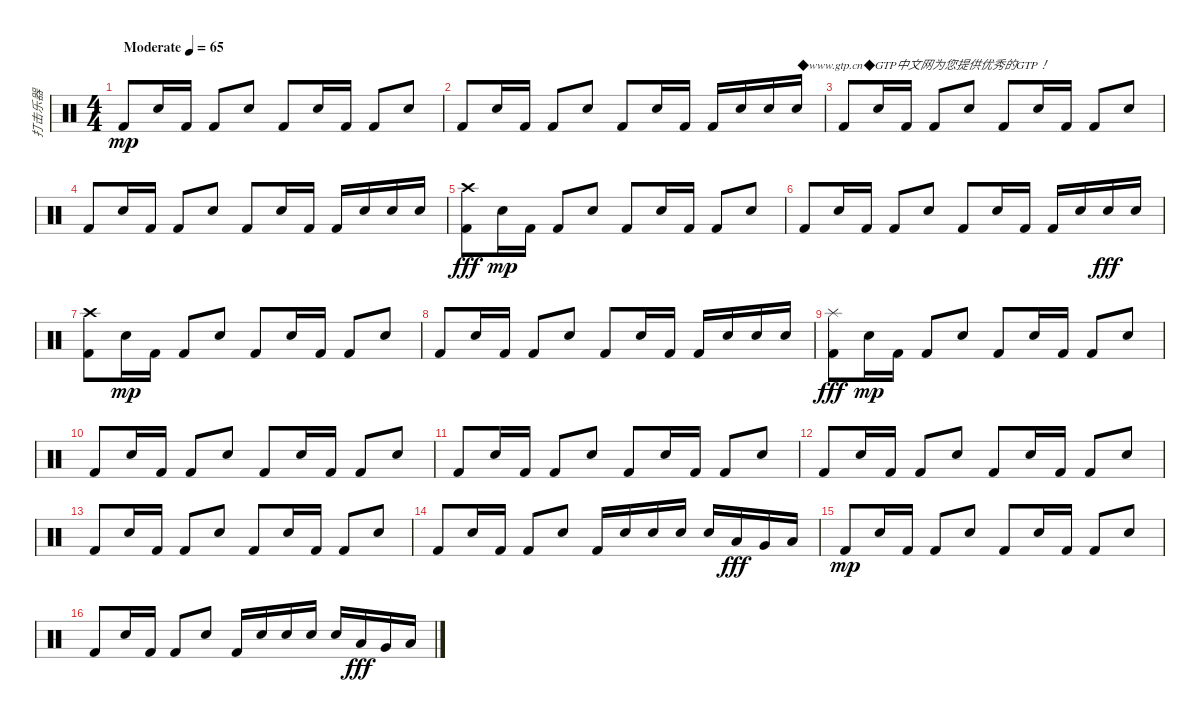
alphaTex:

\track ("打击乐器" "打击乐器") {instrument percussion}
\staff {score}
\articulation defaults
\ts (4 4)
\tempo (65 "Moderate")
\clef neutral
\ks c "Kick (hit) 2".8{dy mp} "Snare (hit) 2".16 "Kick (hit) 2".16 "Kick (hit) 2".8 "Snare (hit) 2".8 "Kick (hit) 2".8 "Snare (hit) 2".16 "Kick (hit) 2".16 "Kick (hit) 2".8 "Snare (hit) 2".8
|
"Kick (hit) 2".8 "Snare (hit) 2".16 "Kick (hit) 2".16 "Kick (hit) 2".8 "Snare (hit) 2".8 "Kick (hit) 2".8 "Snare (hit) 2".16 "Kick (hit) 2".16 "Kick (hit) 2".16 "Snare (hit) 2".16 "Snare (hit) 2".16 "Snare (hit) 2".16{txt "◆www.gtp.cn◆GTP中文网为您提供优秀的GTP！"} |
"Kick (hit) 2".8 "Snare (hit) 2".16 "Kick (hit) 2".16 "Kick (hit) 2".8 "Snare (hit) 2".8 "Kick (hit) 2".8 "Snare (hit) 2".16 "Kick (hit) 2".16 "Kick (hit) 2".8 "Snare (hit) 2".8 |
"Kick (hit) 2".8 "Snare (hit) 2".16 "Kick (hit) 2".16 "Kick (hit) 2".8 "Snare (hit) 2".8 "Kick (hit) 2".8 "Snare (hit) 2".16 "Kick (hit) 2".16 "Kick (hit) 2".16 "Snare (hit) 2".16 "Snare (hit) 2".16 "Snare (hit) 2".16 |
("Kick (hit) 2" "Crash high (hit)").8{dy fff} "Snare (hit) 2".16{dy mp} "Kick (hit) 2".16 "Kick (hit) 2".8 "Snare (hit) 2".8 "Kick (hit) 2".8 "Snare (hit) 2".16 "Kick (hit) 2".16 "Kick (hit) 2".8 "Snare (hit) 2".8 |
"Kick (hit) 2".8 "Snare (hit) 2".16 "Kick (hit) 2".16 "Kick (hit) 2".8 "Snare (hit) 2".8 "Kick (hit) 2".8 "Snare (hit) 2".16 "Kick (hit) 2".16 "Kick (hit) 2".16 "Snare (hit) 2".16 "Snare (hit) 2".16{dy fff} "Snare (hit) 2".16 |
("Kick (hit) 2" "Crash high (hit)").8 "Snare (hit) 2".16{dy mp} "Kick (hit) 2".16 "Kick (hit) 2".8 "Snare (hit) 2".8 "Kick (hit) 2".8 "Snare (hit) 2".16 "Kick (hit) 2".16 "Kick (hit) 2".8 "Snare (hit) 2".8 |
"Kick (hit) 2".8 "Snare (hit) 2".16 "Kick (hit) 2".16 "Kick (hit) 2".8 "Snare (hit) 2".8 "Kick (hit) 2".8 "Snare (hit) 2".16 "Kick (hit) 2".16 "Kick (hit) 2".16 "Snare (hit) 2".16 "Snare (hit) 2".16 "Snare (hit) 2".16 |
("Kick (hit) 2" "Splash (hit)").8{dy fff} "Snare (hit) 2".16{dy mp} "Kick (hit) 2".16 "Kick (hit) 2".8 "Snare (hit) 2".8 "Kick (hit) 2".8 "Snare (hit) 2".16 "Kick (hit) 2".16 "Kick (hit) 2".8 "Snare (hit) 2".8 |
"Kick (hit) 2".8 "Snare (hit) 2".16 "Kick (hit) 2".16 "Kick (hit) 2".8 "Snare (hit) 2".8 "Kick (hit) 2".8 "Snare (hit) 2".16 "Kick (hit) 2".16 "Kick (hit) 2".8 "Snare (hit) 2".8 |
"Kick (hit) 2".8 "Snare (hit) 2".16 "Kick (hit) 2".16 "Kick (hit) 2".8 "Snare (hit) 2".8 "Kick (hit) 2".8 "Snare (hit) 2".16 "Kick (hit) 2".16 "Kick (hit) 2".8 "Snare (hit) 2".8 |
"Kick (hit) 2".8 "Snare (hit) 2".16 "Kick (hit) 2".16 "Kick (hit) 2".8 "Snare (hit) 2".8 "Kick (hit) 2".8 "Snare (hit) 2".16 "Kick (hit) 2".16 "Kick (hit) 2".8 "Snare (hit) 2".8 |
"Kick (hit) 2".8 "Snare (hit) 2".16 "Kick (hit) 2".16 "Kick (hit) 2".8 "Snare (hit) 2".8 "Kick (hit) 2".8 "Snare (hit) 2".16 "Kick (hit) 2".16 "Kick (hit) 2".8 "Snare (hit) 2".8 |
"Kick (hit) 2".8 "Snare (hit) 2".16 "Kick (hit) 2".16 "Kick (hit) 2".8 "Snare (hit) 2".8 "Kick (hit) 2".16 "Snare (hit) 2".16 "Snare (hit) 2".16 "Snare (hit) 2".16 "Snare (hit) 2".16 "Low Tom (hit)".16{dy fff} "Very Low Tom (hit)".16 "Low Floor Tom (hit)".16 |
"Kick (hit) 2".8{dy mp} "Snare (hit) 2".16 "Kick (hit) 2".16 "Kick (hit) 2".8 "Snare (hit) 2".8 "Kick (hit) 2".8 "Snare (hit) 2".16 "Kick (hit) 2".16 "Kick (hit) 2".8 "Snare (hit) 2".8 |
"Kick (hit) 2".8 "Snare (hit) 2".16 "Kick (hit) 2".16 "Kick (hit) 2".8 "Snare (hit) 2".8 "Kick (hit) 2".16 "Snare (hit) 2".16 "Snare (hit) 2".16 "Snare (hit) 2".16 "Snare (hit) 2".16 "Low Tom (hit)".16{dy fff} "Very Low Tom (hit)".16 "Low Floor Tom (hit)".16
